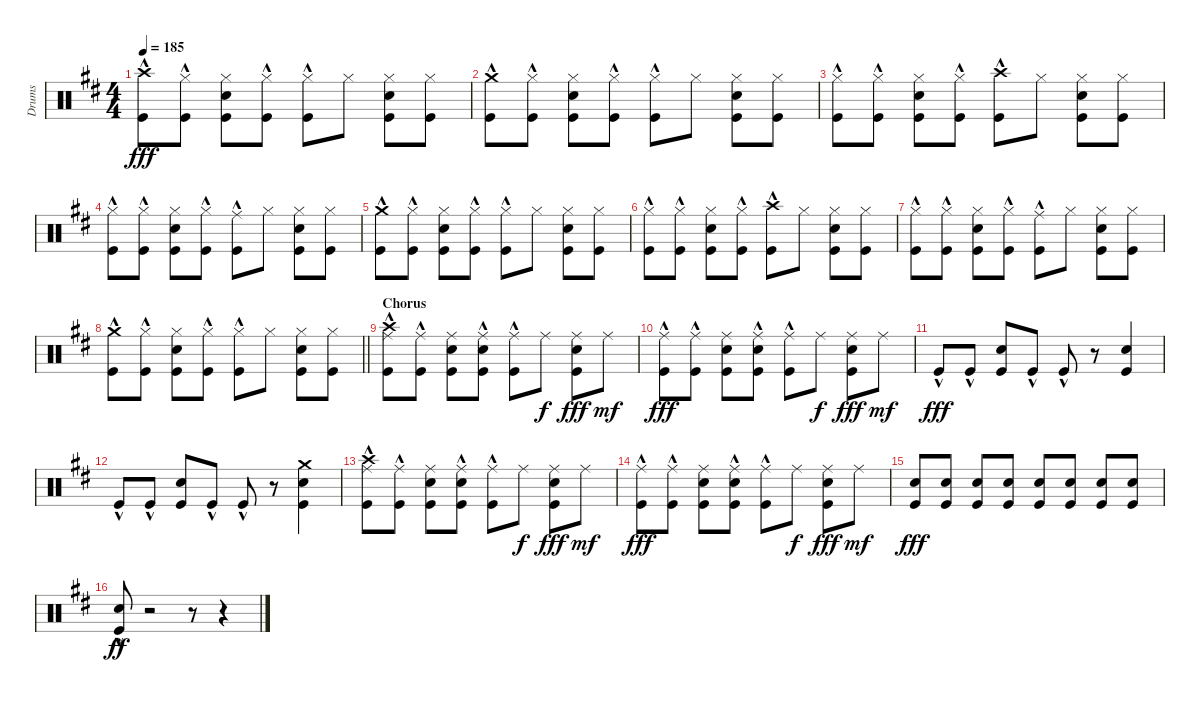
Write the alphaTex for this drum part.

\track ("Drums" "Drums") {instrument percussion}
\staff {score}
\articulation defaults
\ts (4 4)
\tempo 185
\clef neutral
\ks d
("Crash high (hit)"{hac} "Kick (hit)"{hac}).8{dy fff} ("Hi-Hat (closed)" "Kick (hit)"{hac}).8 ("Hi-Hat (closed)" "Snare (hit) 2" "Kick (hit)").8 ("Hi-Hat (closed)" "Kick (hit)"{hac}).8 ("Hi-Hat (closed)" "Kick (hit)"{hac}).8 "Hi-Hat (closed)".8 ("Hi-Hat (closed)" "Snare (hit) 2" "Kick (hit)").8 ("Hi-Hat (closed)" "Kick (hit)").8 |
("Crash medium (hit)" "Kick (hit)"{hac}).8 ("Hi-Hat (closed)" "Kick (hit)"{hac}).8 ("Hi-Hat (closed)" "Snare (hit) 2" "Kick (hit)").8 ("Hi-Hat (closed)" "Kick (hit)"{hac}).8 ("Hi-Hat (closed)" "Kick (hit)"{hac}).8 "Hi-Hat (closed)".8 ("Hi-Hat (closed)" "Snare (hit) 2" "Kick (hit)").8 ("Hi-Hat (closed)" "Kick (hit)").8 |
("Hi-Hat (closed)" "Kick (hit)"{hac}).8 ("Hi-Hat (closed)" "Kick (hit)"{hac}).8 ("Hi-Hat (closed)" "Snare (hit) 2" "Kick (hit)").8 ("Hi-Hat (closed)" "Kick (hit)"{hac}).8 ("Crash high (hit)" "Kick (hit)"{hac}).8 "Hi-Hat (closed)".8 ("Hi-Hat (closed)" "Snare (hit) 2" "Kick (hit)").8 ("Hi-Hat (closed)" "Kick (hit)").8 |
("Hi-Hat (closed)" "Kick (hit)"{hac}).8 ("Hi-Hat (closed)" "Kick (hit)"{hac}).8 ("Hi-Hat (closed)" "Snare (hit) 2" "Kick (hit)").8 ("Hi-Hat (closed)" "Kick (hit)"{hac}).8 ("Ride (middle)" "Kick (hit)"{hac}).8 "Hi-Hat (closed)".8 ("Hi-Hat (closed)" "Snare (hit) 2" "Kick (hit)").8 ("Hi-Hat (closed)" "Kick (hit)").8 |
("Crash medium (hit)" "Kick (hit)"{hac}).8 ("Hi-Hat (closed)" "Kick (hit)"{hac}).8 ("Hi-Hat (closed)" "Snare (hit) 2" "Kick (hit)").8 ("Hi-Hat (closed)" "Kick (hit)"{hac}).8 ("Hi-Hat (closed)" "Kick (hit)"{hac}).8 "Hi-Hat (closed)".8 ("Hi-Hat (closed)" "Snare (hit) 2" "Kick (hit)").8 ("Hi-Hat (closed)" "Kick (hit)").8 |
("Hi-Hat (closed)" "Kick (hit)"{hac}).8 ("Hi-Hat (closed)" "Kick (hit)"{hac}).8 ("Hi-Hat (closed)" "Snare (hit) 2" "Kick (hit)").8 ("Hi-Hat (closed)" "Kick (hit)"{hac}).8 ("Crash high (hit)" "Kick (hit)"{hac}).8 "Hi-Hat (closed)".8 ("Hi-Hat (closed)" "Snare (hit) 2" "Kick (hit)").8 ("Hi-Hat (closed)" "Kick (hit)").8 |
("Hi-Hat (closed)" "Kick (hit)"{hac}).8 ("Hi-Hat (closed)" "Kick (hit)"{hac}).8 ("Hi-Hat (closed)" "Snare (hit) 2" "Kick (hit)").8 ("Hi-Hat (closed)" "Kick (hit)"{hac}).8 ("Ride (middle)" "Kick (hit)"{hac}).8 "Hi-Hat (closed)".8 ("Hi-Hat (closed)" "Snare (hit) 2" "Kick (hit)").8 ("Hi-Hat (closed)" "Kick (hit)").8 |
\barLineRight lightlight
("Crash medium (hit)" "Kick (hit)"{hac}).8 ("Hi-Hat (closed)" "Kick (hit)"{hac}).8 ("Hi-Hat (closed)" "Snare (hit) 2" "Kick (hit)").8 ("Hi-Hat (closed)" "Kick (hit)"{hac}).8 ("Hi-Hat (closed)" "Kick (hit)"{hac}).8 "Hi-Hat (closed)".8 ("Hi-Hat (closed)" "Snare (hit) 2" "Kick (hit)").8 ("Hi-Hat (closed)" "Kick (hit)").8 |
\section ("" "Chorus")
("Ride (middle)" "Crash high (hit)" "Kick (hit)"{hac}).8 ("Ride (middle)" "Kick (hit)"{hac}).8 ("Ride (middle)" "Snare (hit) 2" "Kick (hit)").8 ("Ride (middle)" "Snare (hit) 2" "Kick (hit)"{hac}).8 ("Ride (middle)" "Kick (hit)"{hac}).8 "Ride (middle)".8{dy f} ("Ride (middle)" "Snare (hit) 2" "Kick (hit)").8{dy fff} "Ride (middle)".8{dy mf} |
("Ride (middle)" "Kick (hit)"{hac}).8{dy fff} ("Ride (middle)" "Kick (hit)"{hac}).8 ("Ride (middle)" "Snare (hit) 2" "Kick (hit)").8 ("Ride (middle)" "Snare (hit) 2" "Kick (hit)"{hac}).8 ("Ride (middle)" "Kick (hit)"{hac}).8 "Ride (middle)".8{dy f} ("Ride (middle)" "Snare (hit) 2" "Kick (hit)").8{dy fff} "Ride (middle)".8{dy mf} |
"Kick (hit)"{hac}.8{dy fff} "Kick (hit)"{hac}.8 ("Snare (hit) 2" "Kick (hit)").8 "Kick (hit)"{hac}.8 "Kick (hit)"{hac}.8 r.8 ("Snare (hit) 2" "Kick (hit)").4 |
"Kick (hit)"{hac}.8 "Kick (hit)"{hac}.8 ("Snare (hit) 2" "Kick (hit)").8 "Kick (hit)"{hac}.8 "Kick (hit)"{hac}.8 r.8 ("Crash medium (hit)" "Snare (hit) 2" "Kick (hit)").4 |
("Ride (middle)" "Crash high (hit)" "Kick (hit)"{hac}).8 ("Ride (middle)" "Kick (hit)"{hac}).8 ("Ride (middle)" "Snare (hit) 2" "Kick (hit)").8 ("Ride (middle)" "Snare (hit) 2" "Kick (hit)"{hac}).8 ("Ride (middle)" "Kick (hit)"{hac}).8 "Ride (middle)".8{dy f} ("Ride (middle)" "Snare (hit) 2" "Kick (hit)").8{dy fff} "Ride (middle)".8{dy mf} |
("Ride (middle)" "Kick (hit)"{hac}).8{dy fff} ("Ride (middle)" "Kick (hit)"{hac}).8 ("Ride (middle)" "Snare (hit) 2" "Kick (hit)").8 ("Ride (middle)" "Snare (hit) 2" "Kick (hit)"{hac}).8 ("Ride (middle)" "Kick (hit)"{hac}).8 "Ride (middle)".8{dy f} ("Ride (middle)" "Snare (hit) 2" "Kick (hit)").8{dy fff} "Ride (middle)".8{dy mf} |
("Snare (hit) 2" "Kick (hit)").8{dy fff} ("Snare (hit) 2" "Kick (hit)").8 ("Snare (hit) 2" "Kick (hit)").8 ("Snare (hit) 2" "Kick (hit)").8 ("Snare (hit) 2" "Kick (hit)").8 ("Snare (hit) 2" "Kick (hit)").8 ("Snare (hit) 2" "Kick (hit)").8 ("Snare (hit) 2" "Kick (hit)").8 |
("Snare (hit) 2" "Kick (hit)"{hac}).8{dy ff} r.2 r.8 r.4
